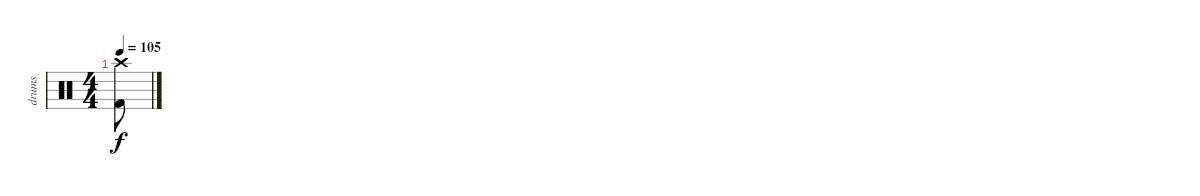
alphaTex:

\track ("drums" "drums") {instrument percussion}
\staff {score}
\articulation defaults
\ts (4 4)
\tempo 105
\clef neutral
\ks c
("Crash high (hit)" "Kick (hit) 2").8{dy f}
